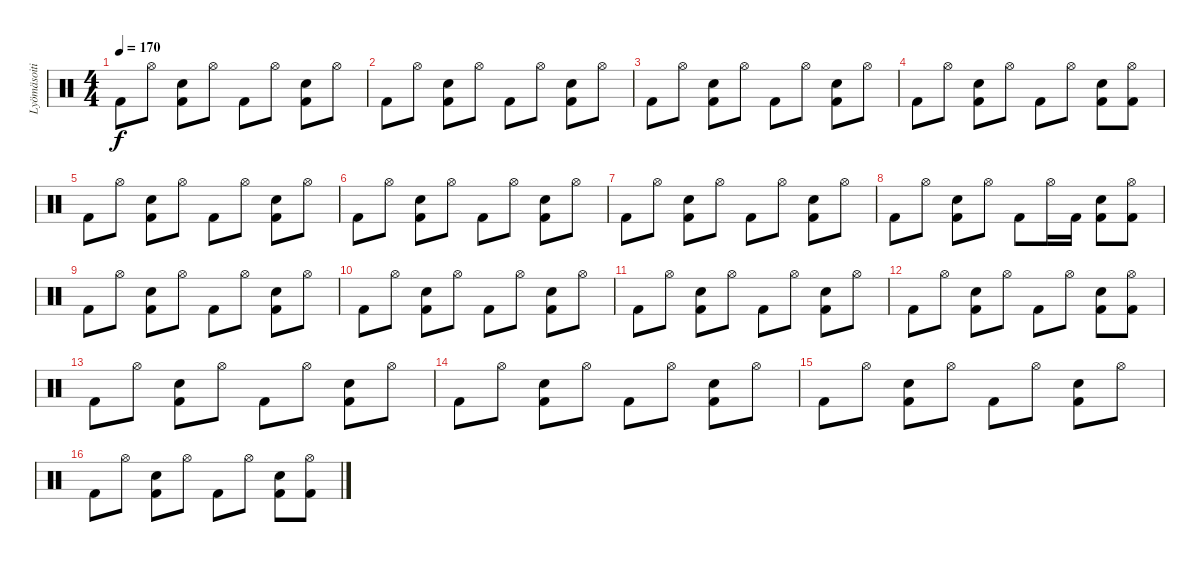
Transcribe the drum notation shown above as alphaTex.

\track ("Lyömäsoitin" "Lyömäsoiti") {instrument percussion}
\staff {score}
\articulation defaults
\ts (4 4)
\tempo 170
\clef neutral
\ks c "Kick (hit) 2".8{dy f} "Hi-Hat (open)".8
("Snare (hit) 2" "Kick (hit) 2").8 "Hi-Hat (open)".8 "Kick (hit) 2".8 "Hi-Hat (open)".8 ("Snare (hit) 2" "Kick (hit) 2").8 "Hi-Hat (open)".8 |
"Kick (hit) 2".8 "Hi-Hat (open)".8 ("Snare (hit) 2" "Kick (hit) 2").8 "Hi-Hat (open)".8 "Kick (hit) 2".8 "Hi-Hat (open)".8 ("Snare (hit) 2" "Kick (hit) 2").8 "Hi-Hat (open)".8 |
"Kick (hit) 2".8 "Hi-Hat (open)".8 ("Snare (hit) 2" "Kick (hit) 2").8 "Hi-Hat (open)".8 "Kick (hit) 2".8 "Hi-Hat (open)".8 ("Snare (hit) 2" "Kick (hit) 2").8 "Hi-Hat (open)".8 |
"Kick (hit) 2".8 "Hi-Hat (open)".8 ("Snare (hit) 2" "Kick (hit) 2").8 "Hi-Hat (open)".8 "Kick (hit) 2".8 "Hi-Hat (open)".8 ("Snare (hit) 2" "Kick (hit) 2").8 ("Hi-Hat (open)" "Kick (hit) 2").8 |
"Kick (hit) 2".8 "Hi-Hat (open)".8 ("Snare (hit) 2" "Kick (hit) 2").8 "Hi-Hat (open)".8 "Kick (hit) 2".8 "Hi-Hat (open)".8 ("Snare (hit) 2" "Kick (hit) 2").8 "Hi-Hat (open)".8 |
"Kick (hit) 2".8 "Hi-Hat (open)".8 ("Snare (hit) 2" "Kick (hit) 2").8 "Hi-Hat (open)".8 "Kick (hit) 2".8 "Hi-Hat (open)".8 ("Snare (hit) 2" "Kick (hit) 2").8 "Hi-Hat (open)".8 |
"Kick (hit) 2".8 "Hi-Hat (open)".8 ("Snare (hit) 2" "Kick (hit) 2").8 "Hi-Hat (open)".8 "Kick (hit) 2".8 "Hi-Hat (open)".8 ("Snare (hit) 2" "Kick (hit) 2").8 "Hi-Hat (open)".8 |
"Kick (hit) 2".8 "Hi-Hat (open)".8 ("Snare (hit) 2" "Kick (hit) 2").8 "Hi-Hat (open)".8 "Kick (hit) 2".8 "Hi-Hat (open)".16 "Kick (hit) 2".16 ("Snare (hit) 2" "Kick (hit) 2").8 ("Hi-Hat (open)" "Kick (hit) 2").8 |
"Kick (hit) 2".8 "Hi-Hat (open)".8 ("Snare (hit) 2" "Kick (hit) 2").8 "Hi-Hat (open)".8 "Kick (hit) 2".8 "Hi-Hat (open)".8 ("Snare (hit) 2" "Kick (hit) 2").8 "Hi-Hat (open)".8 |
"Kick (hit) 2".8 "Hi-Hat (open)".8 ("Snare (hit) 2" "Kick (hit) 2").8 "Hi-Hat (open)".8 "Kick (hit) 2".8 "Hi-Hat (open)".8 ("Snare (hit) 2" "Kick (hit) 2").8 "Hi-Hat (open)".8 |
"Kick (hit) 2".8 "Hi-Hat (open)".8 ("Snare (hit) 2" "Kick (hit) 2").8 "Hi-Hat (open)".8 "Kick (hit) 2".8 "Hi-Hat (open)".8 ("Snare (hit) 2" "Kick (hit) 2").8 "Hi-Hat (open)".8 |
"Kick (hit) 2".8 "Hi-Hat (open)".8 ("Snare (hit) 2" "Kick (hit) 2").8 "Hi-Hat (open)".8 "Kick (hit) 2".8 "Hi-Hat (open)".8 ("Snare (hit) 2" "Kick (hit) 2").8 ("Hi-Hat (open)" "Kick (hit) 2").8 |
"Kick (hit) 2".8 "Hi-Hat (open)".8 ("Snare (hit) 2" "Kick (hit) 2").8 "Hi-Hat (open)".8 "Kick (hit) 2".8 "Hi-Hat (open)".8 ("Snare (hit) 2" "Kick (hit) 2").8 "Hi-Hat (open)".8 |
"Kick (hit) 2".8 "Hi-Hat (open)".8 ("Snare (hit) 2" "Kick (hit) 2").8 "Hi-Hat (open)".8 "Kick (hit) 2".8 "Hi-Hat (open)".8 ("Snare (hit) 2" "Kick (hit) 2").8 "Hi-Hat (open)".8 |
"Kick (hit) 2".8 "Hi-Hat (open)".8 ("Snare (hit) 2" "Kick (hit) 2").8 "Hi-Hat (open)".8 "Kick (hit) 2".8 "Hi-Hat (open)".8 ("Snare (hit) 2" "Kick (hit) 2").8 "Hi-Hat (open)".8 |
"Kick (hit) 2".8 "Hi-Hat (open)".8 ("Snare (hit) 2" "Kick (hit) 2").8 "Hi-Hat (open)".8 "Kick (hit) 2".8 "Hi-Hat (open)".8 ("Snare (hit) 2" "Kick (hit) 2").8 ("Hi-Hat (open)" "Kick (hit) 2").8
